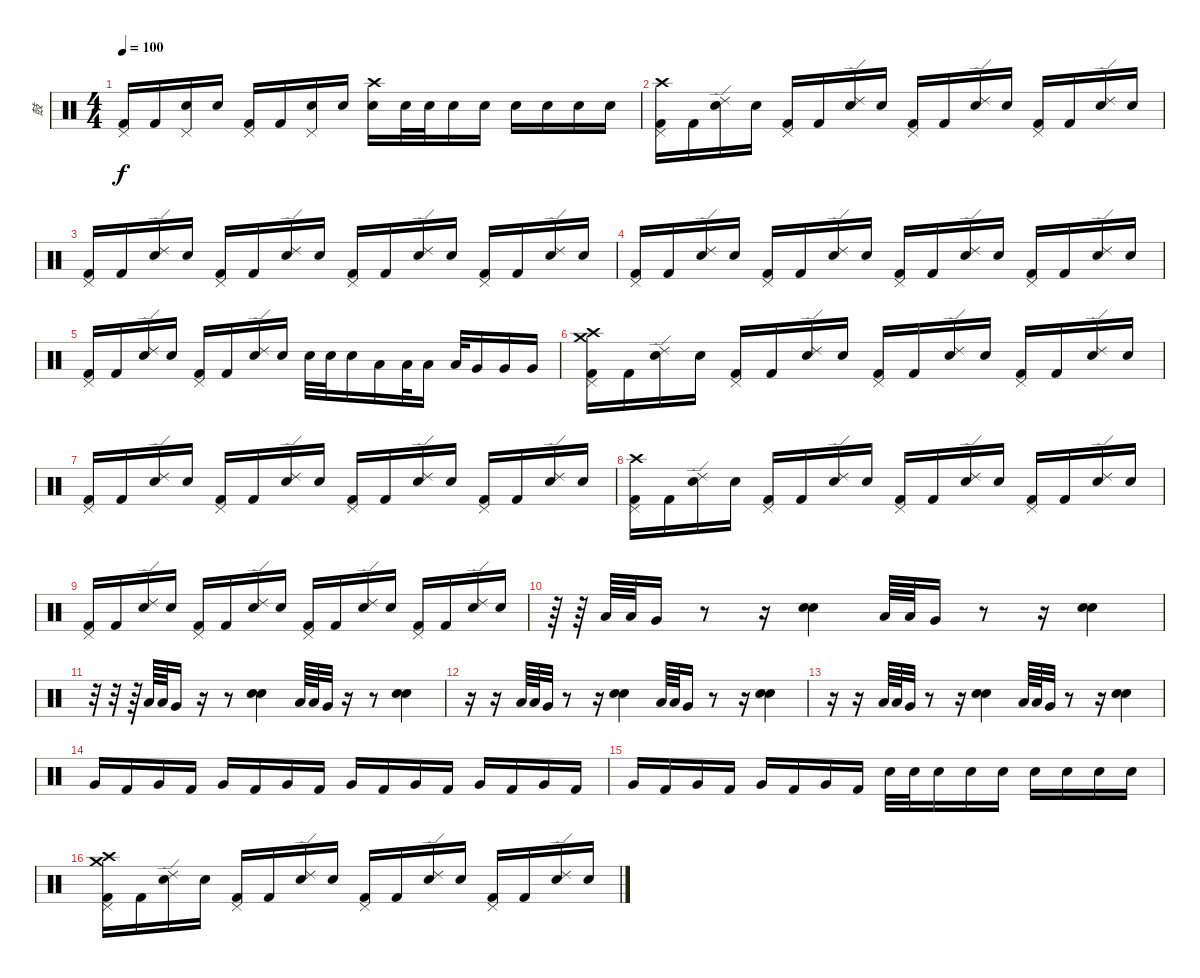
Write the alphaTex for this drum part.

\track ("鼓" "鼓") {instrument percussion}
\staff {score}
\articulation defaults
\ts (4 4)
\tempo 100
\clef neutral
\ks c
("Pedal Hi-Hat (hit)" "Kick (hit) 2").16{dy f} "Kick (hit) 2".16 ("Pedal Hi-Hat (hit)" "Electric Snare (hit)").16 "Snare (hit)".16 ("Pedal Hi-Hat (hit)" "Kick (hit) 2").16 "Kick (hit) 2".16 ("Pedal Hi-Hat (hit)" "Electric Snare (hit)").16 "Snare (hit)".16 ("Crash high (hit)" "Electric Snare (hit)").16 "Electric Snare (hit)".32 "Electric Snare (hit)".32 "Electric Snare (hit)".16 "Electric Snare (hit)".16 "Electric Snare (hit)".16 "Electric Snare (hit)".16 "Electric Snare (hit)".16 "Electric Snare (hit)".16 |
("Crash high (hit)" "Pedal Hi-Hat (hit)" "Kick (hit) 2").16 "Kick (hit) 2".16 ("Ride (edge) 2" "Electric Snare (hit)").16 "Snare (hit)".16 ("Pedal Hi-Hat (hit)" "Kick (hit) 2").16 "Kick (hit) 2".16 ("Ride (edge) 2" "Electric Snare (hit)").16 "Snare (hit)".16 ("Pedal Hi-Hat (hit)" "Kick (hit) 2").16 "Kick (hit) 2".16 ("Ride (edge) 2" "Electric Snare (hit)").16 "Snare (hit)".16 ("Pedal Hi-Hat (hit)" "Kick (hit) 2").16 "Kick (hit) 2".16 ("Ride (edge) 2" "Electric Snare (hit)").16 "Snare (hit)".16 |
("Pedal Hi-Hat (hit)" "Kick (hit) 2").16 "Kick (hit) 2".16 ("Ride (edge) 2" "Electric Snare (hit)").16 "Snare (hit)".16 ("Pedal Hi-Hat (hit)" "Kick (hit) 2").16 "Kick (hit) 2".16 ("Ride (edge) 2" "Electric Snare (hit)").16 "Snare (hit)".16 ("Pedal Hi-Hat (hit)" "Kick (hit) 2").16 "Kick (hit) 2".16 ("Ride (edge) 2" "Electric Snare (hit)").16 "Snare (hit)".16 ("Pedal Hi-Hat (hit)" "Kick (hit) 2").16 "Kick (hit) 2".16 ("Ride (edge) 2" "Electric Snare (hit)").16 "Snare (hit)".16 |
("Pedal Hi-Hat (hit)" "Kick (hit) 2").16 "Kick (hit) 2".16 ("Ride (edge) 2" "Electric Snare (hit)").16 "Snare (hit)".16 ("Pedal Hi-Hat (hit)" "Kick (hit) 2").16 "Kick (hit) 2".16 ("Ride (edge) 2" "Electric Snare (hit)").16 "Snare (hit)".16 ("Pedal Hi-Hat (hit)" "Kick (hit) 2").16 "Kick (hit) 2".16 ("Ride (edge) 2" "Electric Snare (hit)").16 "Snare (hit)".16 ("Pedal Hi-Hat (hit)" "Kick (hit) 2").16 "Kick (hit) 2".16 ("Ride (edge) 2" "Electric Snare (hit)").16 "Snare (hit)".16 |
("Pedal Hi-Hat (hit)" "Kick (hit) 2").16 "Kick (hit) 2".16 ("Ride (edge) 2" "Electric Snare (hit)").16 "Snare (hit)".16 ("Pedal Hi-Hat (hit)" "Kick (hit) 2").16 "Kick (hit) 2".16 ("Ride (edge) 2" "Electric Snare (hit)").16 "Snare (hit)".16 "Electric Snare (hit)".32 "Electric Snare (hit)".32 "Electric Snare (hit)".16 "Low Tom (hit)".16 "Low Tom (hit)".32 "Low Tom (hit)".16 "Low Tom (hit)".32 "Very Low Tom (hit)".16 "Very Low Tom (hit)".16 "Very Low Tom (hit)".16 |
("Crash medium (hit)" "Crash high (hit)" "Pedal Hi-Hat (hit)" "Kick (hit) 2").16 "Kick (hit) 2".16 ("Ride (edge) 2" "Electric Snare (hit)").16 "Snare (hit)".16 ("Pedal Hi-Hat (hit)" "Kick (hit) 2").16 "Kick (hit) 2".16 ("Ride (edge) 2" "Electric Snare (hit)").16 "Snare (hit)".16 ("Pedal Hi-Hat (hit)" "Kick (hit) 2").16 "Kick (hit) 2".16 ("Ride (edge) 2" "Electric Snare (hit)").16 "Snare (hit)".16 ("Pedal Hi-Hat (hit)" "Kick (hit) 2").16 "Kick (hit) 2".16 ("Ride (edge) 2" "Electric Snare (hit)").16 "Snare (hit)".16 |
("Pedal Hi-Hat (hit)" "Kick (hit) 2").16 "Kick (hit) 2".16 ("Ride (edge) 2" "Electric Snare (hit)").16 "Snare (hit)".16 ("Pedal Hi-Hat (hit)" "Kick (hit) 2").16 "Kick (hit) 2".16 ("Ride (edge) 2" "Electric Snare (hit)").16 "Snare (hit)".16 ("Pedal Hi-Hat (hit)" "Kick (hit) 2").16 "Kick (hit) 2".16 ("Ride (edge) 2" "Electric Snare (hit)").16 "Snare (hit)".16 ("Pedal Hi-Hat (hit)" "Kick (hit) 2").16 "Kick (hit) 2".16 ("Ride (edge) 2" "Electric Snare (hit)").16 "Snare (hit)".16 |
("Crash high (hit)" "Pedal Hi-Hat (hit)" "Kick (hit) 2").16 "Kick (hit) 2".16 ("Ride (edge) 2" "Electric Snare (hit)").16 "Snare (hit)".16 ("Pedal Hi-Hat (hit)" "Kick (hit) 2").16 "Kick (hit) 2".16 ("Ride (edge) 2" "Electric Snare (hit)").16 "Snare (hit)".16 ("Pedal Hi-Hat (hit)" "Kick (hit) 2").16 "Kick (hit) 2".16 ("Ride (edge) 2" "Electric Snare (hit)").16 "Snare (hit)".16 ("Pedal Hi-Hat (hit)" "Kick (hit) 2").16 "Kick (hit) 2".16 ("Ride (edge) 2" "Electric Snare (hit)").16 "Snare (hit)".16 |
("Pedal Hi-Hat (hit)" "Kick (hit) 2").16 "Kick (hit) 2".16 ("Ride (edge) 2" "Electric Snare (hit)").16 "Snare (hit)".16 ("Pedal Hi-Hat (hit)" "Kick (hit) 2").16 "Kick (hit) 2".16 ("Ride (edge) 2" "Electric Snare (hit)").16 "Snare (hit)".16 ("Pedal Hi-Hat (hit)" "Kick (hit) 2").16 "Kick (hit) 2".16 ("Ride (edge) 2" "Electric Snare (hit)").16 "Snare (hit)".16 ("Pedal Hi-Hat (hit)" "Kick (hit) 2").16 "Kick (hit) 2".16 ("Ride (edge) 2" "Electric Snare (hit)").16 "Snare (hit)".16 |
r.64 r.64 "Low Tom (hit)".64 "Low Tom (hit)".64 "Very Low Tom (hit)".16 r.8 r.16 ("Electric Snare (hit)" "Snare (hit) 2").4 "Low Tom (hit)".64 "Low Tom (hit)".64 "Very Low Tom (hit)".16 r.8 r.16 ("Electric Snare (hit)" "Snare (hit) 2").4 |
r.32 r.32 r.64 "Low Tom (hit)".64 "Low Tom (hit)".64 "Very Low Tom (hit)".16 r.16 r.8 ("Electric Snare (hit)" "Snare (hit) 2").4 "Low Tom (hit)".64 "Low Tom (hit)".64 "Very Low Tom (hit)".32 r.16 r.8 ("Electric Snare (hit)" "Snare (hit) 2").4 |
r.16 r.16 "Low Tom (hit)".64 "Low Tom (hit)".64 "Very Low Tom (hit)".32 r.8 r.16 ("Electric Snare (hit)" "Snare (hit) 2").4 "Low Tom (hit)".64 "Low Tom (hit)".64 "Very Low Tom (hit)".16 r.8 r.16 ("Electric Snare (hit)" "Snare (hit) 2").4 |
r.16 r.16 "Low Tom (hit)".64 "Low Tom (hit)".64 "Very Low Tom (hit)".32 r.8 r.16 ("Electric Snare (hit)" "Snare (hit) 2").4 "Low Tom (hit)".64 "Low Tom (hit)".64 "Very Low Tom (hit)".32 r.8 r.16 ("Electric Snare (hit)" "Snare (hit) 2").4 |
"Very Low Tom (hit)".16 "Kick (hit) 2".16 "Very Low Tom (hit)".16 "Kick (hit) 2".16 "Very Low Tom (hit)".16 "Kick (hit) 2".16 "Very Low Tom (hit)".16 "Kick (hit) 2".16 "Very Low Tom (hit)".16 "Kick (hit) 2".16 "Very Low Tom (hit)".16 "Kick (hit) 2".16 "Very Low Tom (hit)".16 "Kick (hit) 2".16 "Very Low Tom (hit)".16 "Kick (hit) 2".16 |
"Very Low Tom (hit)".16 "Kick (hit) 2".16 "Very Low Tom (hit)".16 "Kick (hit) 2".16 "Very Low Tom (hit)".16 "Kick (hit) 2".16 "Very Low Tom (hit)".16 "Kick (hit) 2".16 "Electric Snare (hit)".32 "Electric Snare (hit)".32 "Electric Snare (hit)".16 "Electric Snare (hit)".16 "Electric Snare (hit)".16 "Electric Snare (hit)".16 "Electric Snare (hit)".16 "Electric Snare (hit)".16 "Electric Snare (hit)".16 |
("Crash medium (hit)" "Crash high (hit)" "Pedal Hi-Hat (hit)" "Kick (hit) 2").16 "Kick (hit) 2".16 ("Ride (edge) 2" "Electric Snare (hit)").16 "Snare (hit)".16 ("Pedal Hi-Hat (hit)" "Kick (hit) 2").16 "Kick (hit) 2".16 ("Ride (edge) 2" "Electric Snare (hit)").16 "Snare (hit)".16 ("Pedal Hi-Hat (hit)" "Kick (hit) 2").16 "Kick (hit) 2".16 ("Ride (edge) 2" "Electric Snare (hit)").16 "Snare (hit)".16 ("Pedal Hi-Hat (hit)" "Kick (hit) 2").16 "Kick (hit) 2".16 ("Ride (edge) 2" "Electric Snare (hit)").16 "Snare (hit)".16
